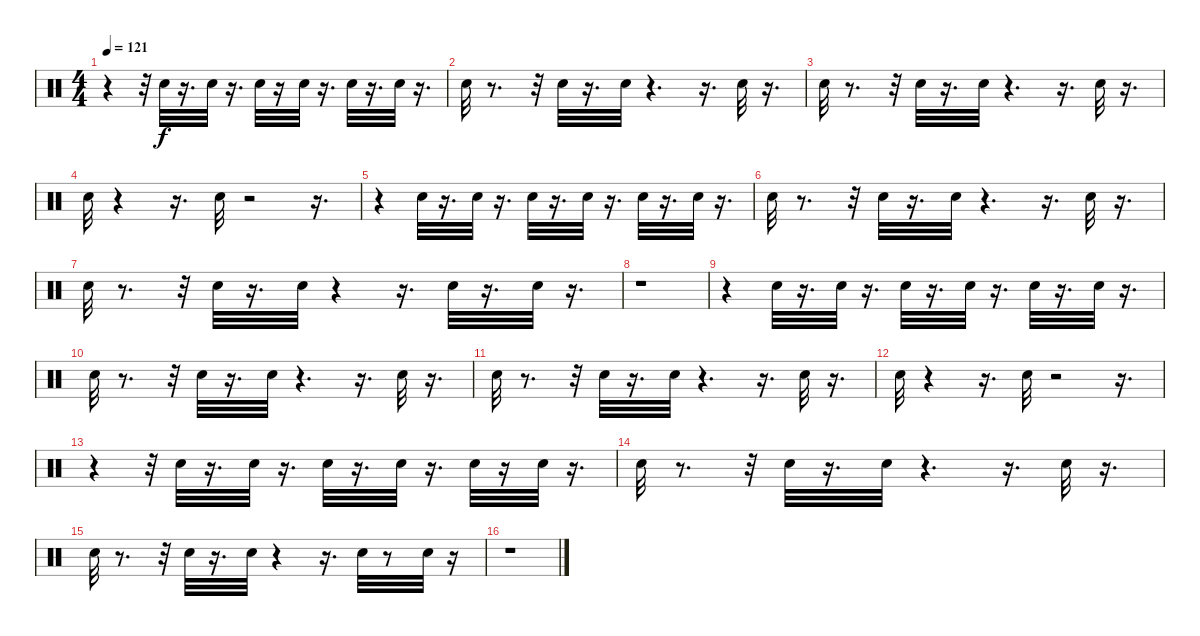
\track "" {instrument percussion}
\staff {score}
\articulation defaults
\ts (4 4)
\tempo 121
\clef neutral
\ks c
r.4{dy f} r.32 "Snare (hit)".32 r.16{d} "Snare (hit)".32 r.16{d} "Snare (hit)".32 r.16 "Snare (hit)".32 r.16{d} "Snare (hit)".32 r.16{d} "Snare (hit)".32 r.16{d} |
"Snare (hit)".32 r.8{d} r.32 "Snare (hit)".32 r.16{d} "Snare (hit)".32 r.4{d} r.16{d} "Snare (hit)".32 r.16{d} |
"Snare (hit)".32 r.8{d} r.32 "Snare (hit)".32 r.16{d} "Snare (hit)".32 r.4{d} r.16{d} "Snare (hit)".32 r.16{d} |
"Snare (hit)".32 r.4 r.16{d} "Snare (hit)".32 r.2 r.16{d} |
r.4 "Snare (hit)".32 r.16{d} "Snare (hit)".32 r.16{d} "Snare (hit)".32 r.16{d} "Snare (hit)".32 r.16{d} "Snare (hit)".32 r.16{d} "Snare (hit)".32 r.16{d} |
"Snare (hit)".32 r.8{d} r.32 "Snare (hit)".32 r.16{d} "Snare (hit)".32 r.4{d} r.16{d} "Snare (hit)".32 r.16{d} |
"Snare (hit)".32 r.8{d} r.32 "Snare (hit)".32 r.16{d} "Snare (hit)".32 r.4 r.16{d} "Snare (hit)".32 r.16{d} "Snare (hit)".32 r.16{d} |
r.1 |
r.4 "Snare (hit)".32 r.16{d} "Snare (hit)".32 r.16{d} "Snare (hit)".32 r.16{d} "Snare (hit)".32 r.16{d} "Snare (hit)".32 r.16{d} "Snare (hit)".32 r.16{d} |
"Snare (hit)".32 r.8{d} r.32 "Snare (hit)".32 r.16{d} "Snare (hit)".32 r.4{d} r.16{d} "Snare (hit)".32 r.16{d} |
"Snare (hit)".32 r.8{d} r.32 "Snare (hit)".32 r.16{d} "Snare (hit)".32 r.4{d} r.16{d} "Snare (hit)".32 r.16{d} |
"Snare (hit)".32 r.4 r.16{d} "Snare (hit)".32 r.2 r.16{d} |
r.4 r.32 "Snare (hit)".32 r.16{d} "Snare (hit)".32 r.16{d} "Snare (hit)".32 r.16{d} "Snare (hit)".32 r.16{d} "Snare (hit)".32 r.16 "Snare (hit)".32 r.16{d} |
"Snare (hit)".32 r.8{d} r.32 "Snare (hit)".32 r.16{d} "Snare (hit)".32 r.4{d} r.16{d} "Snare (hit)".32 r.16{d} |
"Snare (hit)".32 r.8{d} r.32 "Snare (hit)".32 r.16{d} "Snare (hit)".32 r.4 r.16{d} "Snare (hit)".32 r.8 "Snare (hit)".32 r.16 |
r.1
